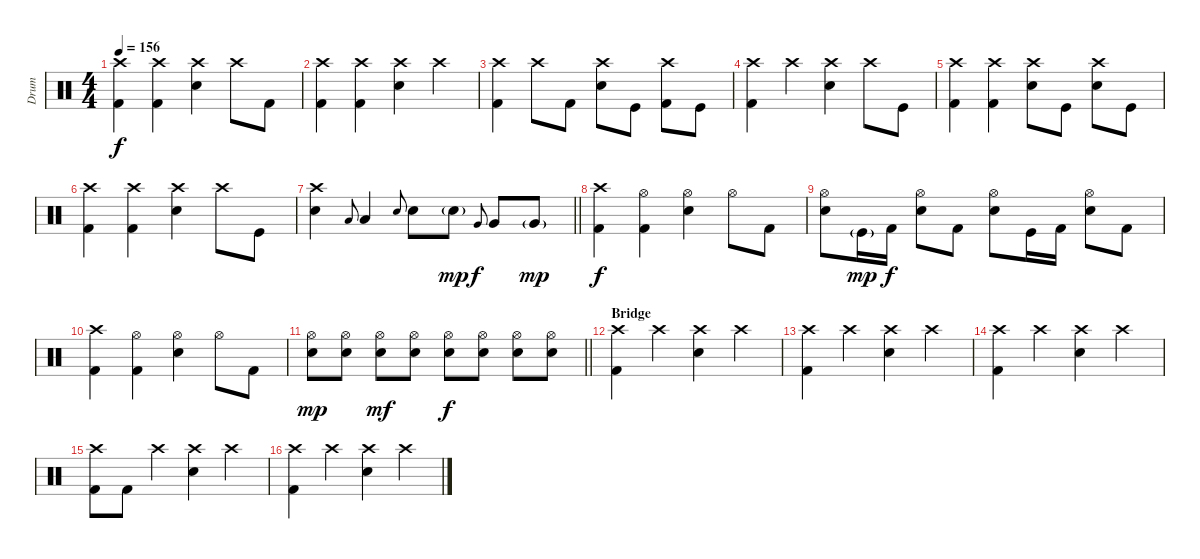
\track ("Drum" "Drum") {instrument percussion}
\staff {score}
\articulation defaults
\ts (4 4)
\tempo 156
\clef neutral
\ks c
("Crash high (hit)" "Kick (hit) 2").4{dy f} ("Crash high (hit)" "Kick (hit) 2").4 ("Crash high (hit)" "Snare (hit) 2").4 "Crash high (hit)".8 "Kick (hit) 2".8 |
("Crash high (hit)" "Kick (hit) 2").4 ("Crash high (hit)" "Kick (hit) 2").4 ("Crash high (hit)" "Snare (hit) 2").4 "Crash high (hit)".4 |
("Crash high (hit)" "Kick (hit) 2").4 "Crash high (hit)".8 "Kick (hit) 2".8 ("Crash high (hit)" "Snare (hit) 2").8 "Kick (hit)".8 ("Crash high (hit)" "Kick (hit) 2").8 "Kick (hit)".8 |
("Crash high (hit)" "Kick (hit) 2").4 "Crash high (hit)".4 ("Crash high (hit)" "Snare (hit) 2").4 "Crash high (hit)".8 "Kick (hit)".8 |
("Crash high (hit)" "Kick (hit) 2").4 ("Crash high (hit)" "Kick (hit) 2").4 ("Crash high (hit)" "Snare (hit) 2").8 "Kick (hit)".8 ("Crash high (hit)" "Snare (hit) 2").8 "Kick (hit)".8 |
("Crash high (hit)" "Kick (hit) 2").4 ("Crash high (hit)" "Kick (hit) 2").4 ("Crash high (hit)" "Snare (hit) 2").4 "Crash high (hit)".8 "Kick (hit)".8 |
\barLineRight lightlight
("Crash high (hit)" "Snare (hit) 2").4 "Low Tom (hit)".8{gr onbeat} "Low Tom (hit)".4 "Snare (hit) 2".8{gr onbeat} "Snare (hit) 2".8 "Snare (hit) 2"{g}.8{dy mp} "Very Low Tom (hit)".8{gr onbeat dy f} "Very Low Tom (hit)".8 "Very Low Tom (hit)"{g}.8{dy mp} |
\section ("" "")
("Crash high (hit)" "Kick (hit) 2").4{dy f} ("Hi-Hat (open)" "Kick (hit) 2").4 ("Hi-Hat (open)" "Electric Snare (hit)").4 "Hi-Hat (open)".8 "Kick (hit) 2".8 |
("Hi-Hat (open)" "Electric Snare (hit)").8 "Kick (hit)"{g}.16{dy mp} "Kick (hit) 2".16{dy f} ("Hi-Hat (open)" "Electric Snare (hit)").8 "Kick (hit) 2".8 ("Hi-Hat (open)" "Electric Snare (hit)").8 "Kick (hit)".16 "Kick (hit) 2".16 ("Hi-Hat (open)" "Electric Snare (hit)").8 "Kick (hit) 2".8 |
("Crash high (hit)" "Kick (hit) 2").4 ("Hi-Hat (open)" "Kick (hit) 2").4 ("Hi-Hat (open)" "Electric Snare (hit)").4 "Hi-Hat (open)".8 "Kick (hit) 2".8 |
\barLineRight lightlight
("Hi-Hat (open)" "Electric Snare (hit)").8{dy mp} ("Hi-Hat (open)" "Electric Snare (hit)").8 ("Hi-Hat (open)" "Electric Snare (hit)").8{dy mf} ("Hi-Hat (open)" "Electric Snare (hit)").8 ("Hi-Hat (open)" "Electric Snare (hit)").8{dy f} ("Hi-Hat (open)" "Electric Snare (hit)").8 ("Hi-Hat (open)" "Electric Snare (hit)").8 ("Hi-Hat (open)" "Electric Snare (hit)").8 |
\section ("" "Bridge")
("Crash high (hit)" "Kick (hit) 2").4 "Crash high (hit)".4 ("Crash high (hit)" "Snare (hit) 2").4 "Crash high (hit)".4 |
("Crash high (hit)" "Kick (hit) 2").4 "Crash high (hit)".4 ("Crash high (hit)" "Snare (hit) 2").4 "Crash high (hit)".4 |
("Crash high (hit)" "Kick (hit) 2").4 "Crash high (hit)".4 ("Crash high (hit)" "Snare (hit) 2").4 "Crash high (hit)".4 |
("Crash high (hit)" "Kick (hit) 2").8 "Kick (hit) 2".8 "Crash high (hit)".4 ("Crash high (hit)" "Snare (hit) 2").4 "Crash high (hit)".4 |
("Crash high (hit)" "Kick (hit) 2").4 "Crash high (hit)".4 ("Crash high (hit)" "Snare (hit) 2").4 "Crash high (hit)".4
